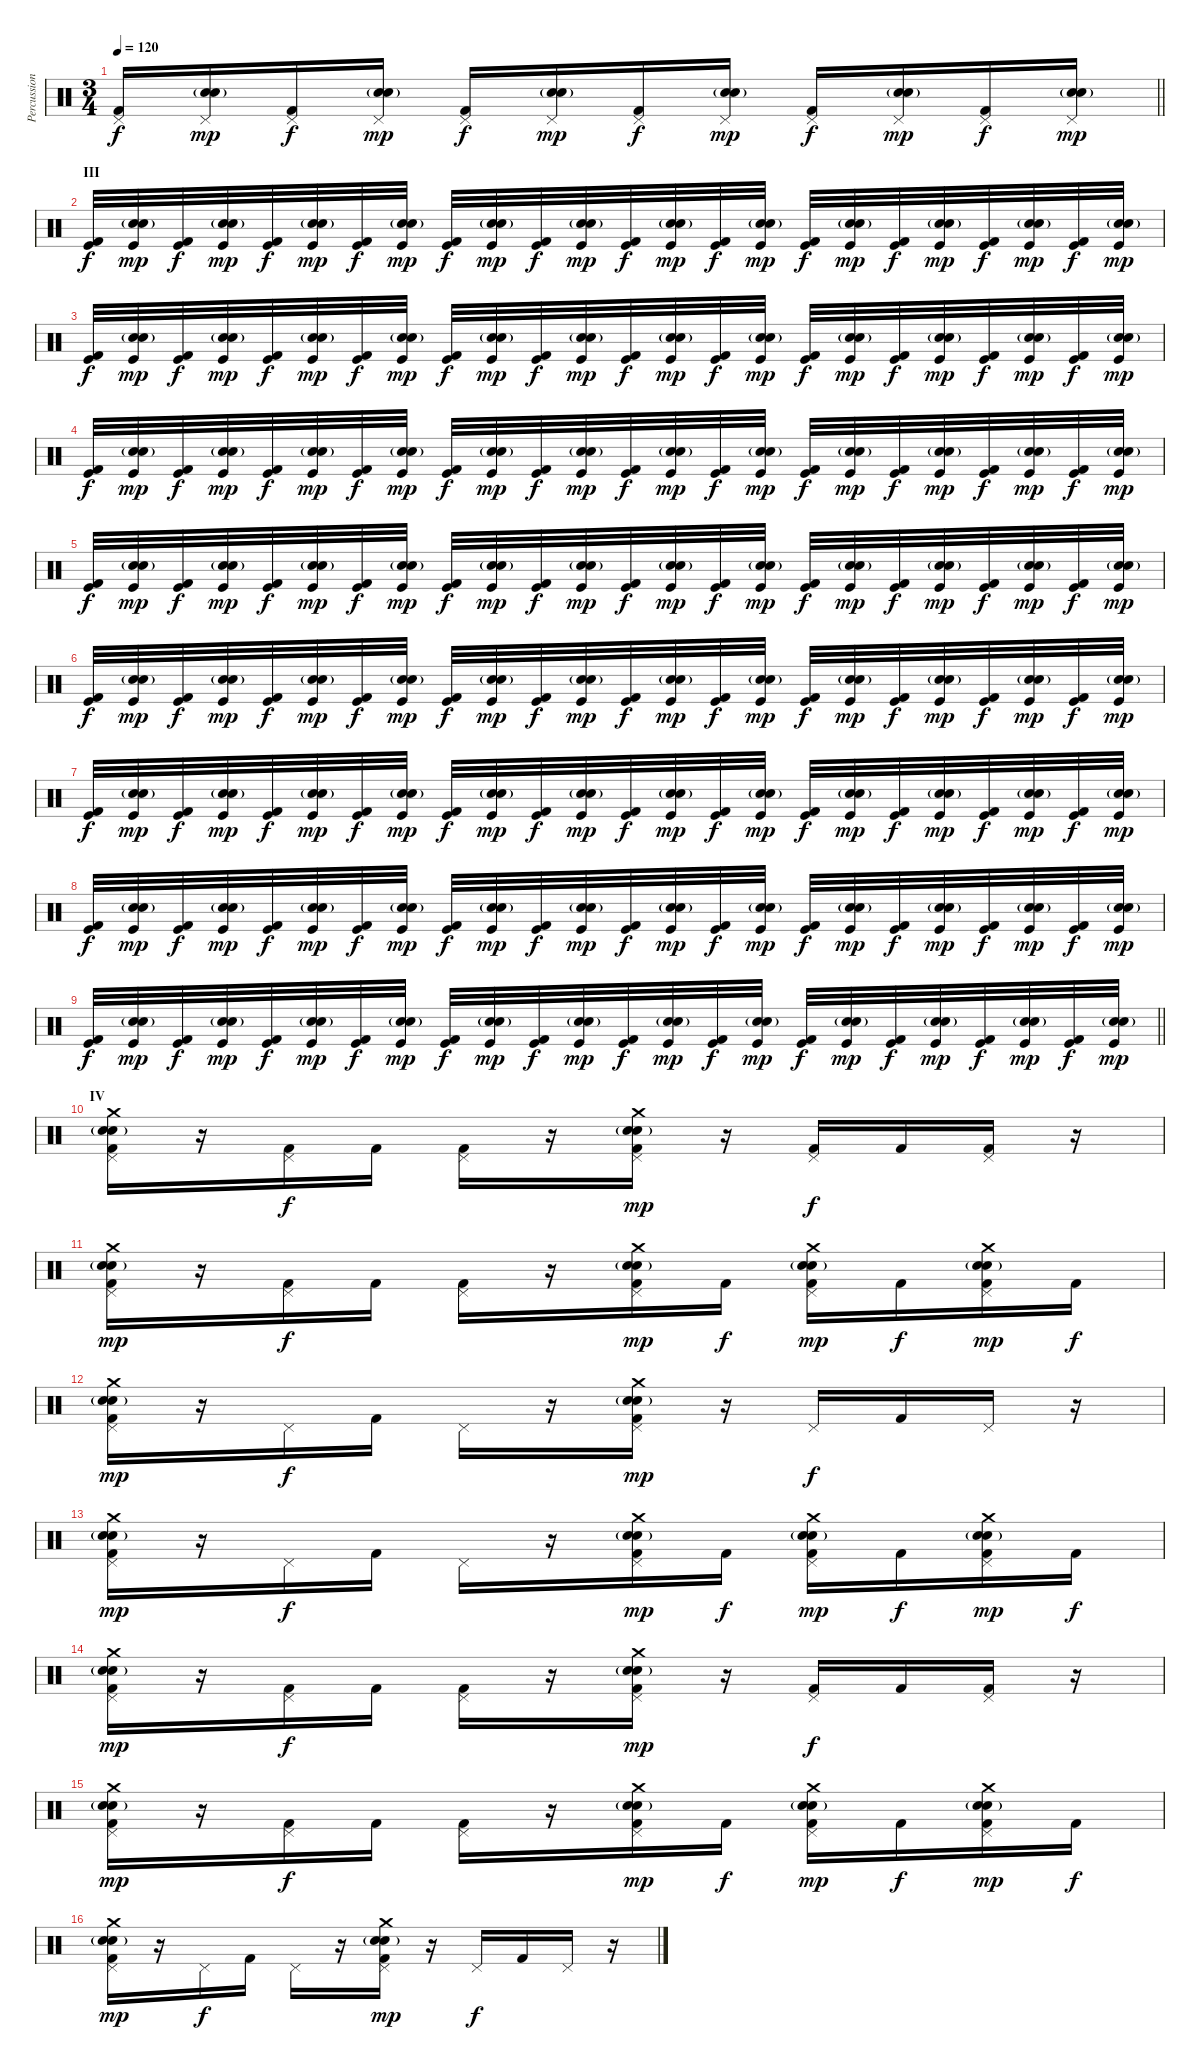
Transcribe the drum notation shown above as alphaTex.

\track ("Percussion" "Percussion") {instrument percussion}
\staff {score}
\articulation defaults
\ts (3 4)
\tempo 120
\clef neutral
\barLineRight lightlight
\ks c
("Kick (hit) 2" "Pedal Hi-Hat (hit)").16{dy f} ("Electric Snare (hit)" "Snare (hit) 2"{g} "Pedal Hi-Hat (hit)").16{dy mp} ("Kick (hit) 2" "Pedal Hi-Hat (hit)").16{dy f} ("Electric Snare (hit)" "Snare (hit) 2"{g} "Pedal Hi-Hat (hit)").16{dy mp} ("Kick (hit) 2" "Pedal Hi-Hat (hit)").16{dy f} ("Electric Snare (hit)" "Snare (hit) 2"{g} "Pedal Hi-Hat (hit)").16{dy mp} ("Kick (hit) 2" "Pedal Hi-Hat (hit)").16{dy f} ("Electric Snare (hit)" "Snare (hit) 2"{g} "Pedal Hi-Hat (hit)").16{dy mp} ("Kick (hit) 2" "Pedal Hi-Hat (hit)").16{dy f} ("Electric Snare (hit)" "Snare (hit) 2"{g} "Pedal Hi-Hat (hit)").16{dy mp} ("Kick (hit) 2" "Pedal Hi-Hat (hit)").16{dy f} ("Electric Snare (hit)" "Snare (hit) 2"{g} "Pedal Hi-Hat (hit)").16{dy mp} |
\section ("" "III")
("Kick (hit) 2" "Kick (hit)").32{dy f} ("Electric Snare (hit)" "Snare (hit) 2"{g} "Kick (hit)").32{dy mp} ("Kick (hit) 2" "Kick (hit)").32{dy f} ("Electric Snare (hit)" "Snare (hit) 2"{g} "Kick (hit)").32{dy mp} ("Kick (hit) 2" "Kick (hit)").32{dy f} ("Electric Snare (hit)" "Snare (hit) 2"{g} "Kick (hit)").32{dy mp} ("Kick (hit) 2" "Kick (hit)").32{dy f} ("Electric Snare (hit)" "Snare (hit) 2"{g} "Kick (hit)").32{dy mp} ("Kick (hit) 2" "Kick (hit)").32{dy f} ("Electric Snare (hit)" "Snare (hit) 2"{g} "Kick (hit)").32{dy mp} ("Kick (hit) 2" "Kick (hit)").32{dy f} ("Electric Snare (hit)" "Snare (hit) 2"{g} "Kick (hit)").32{dy mp} ("Kick (hit) 2" "Kick (hit)").32{dy f} ("Electric Snare (hit)" "Snare (hit) 2"{g} "Kick (hit)").32{dy mp} ("Kick (hit) 2" "Kick (hit)").32{dy f} ("Electric Snare (hit)" "Snare (hit) 2"{g} "Kick (hit)").32{dy mp} ("Kick (hit) 2" "Kick (hit)").32{dy f} ("Electric Snare (hit)" "Snare (hit) 2"{g} "Kick (hit)").32{dy mp} ("Kick (hit) 2" "Kick (hit)").32{dy f} ("Electric Snare (hit)" "Snare (hit) 2"{g} "Kick (hit)").32{dy mp} ("Kick (hit) 2" "Kick (hit)").32{dy f} ("Electric Snare (hit)" "Snare (hit) 2"{g} "Kick (hit)").32{dy mp} ("Kick (hit) 2" "Kick (hit)").32{dy f} ("Electric Snare (hit)" "Snare (hit) 2"{g} "Kick (hit)").32{dy mp} |
("Kick (hit) 2" "Kick (hit)").32{dy f} ("Electric Snare (hit)" "Snare (hit) 2"{g} "Kick (hit)").32{dy mp} ("Kick (hit) 2" "Kick (hit)").32{dy f} ("Electric Snare (hit)" "Snare (hit) 2"{g} "Kick (hit)").32{dy mp} ("Kick (hit) 2" "Kick (hit)").32{dy f} ("Electric Snare (hit)" "Snare (hit) 2"{g} "Kick (hit)").32{dy mp} ("Kick (hit) 2" "Kick (hit)").32{dy f} ("Electric Snare (hit)" "Snare (hit) 2"{g} "Kick (hit)").32{dy mp} ("Kick (hit) 2" "Kick (hit)").32{dy f} ("Electric Snare (hit)" "Snare (hit) 2"{g} "Kick (hit)").32{dy mp} ("Kick (hit) 2" "Kick (hit)").32{dy f} ("Electric Snare (hit)" "Snare (hit) 2"{g} "Kick (hit)").32{dy mp} ("Kick (hit) 2" "Kick (hit)").32{dy f} ("Electric Snare (hit)" "Snare (hit) 2"{g} "Kick (hit)").32{dy mp} ("Kick (hit) 2" "Kick (hit)").32{dy f} ("Electric Snare (hit)" "Snare (hit) 2"{g} "Kick (hit)").32{dy mp} ("Kick (hit) 2" "Kick (hit)").32{dy f} ("Electric Snare (hit)" "Snare (hit) 2"{g} "Kick (hit)").32{dy mp} ("Kick (hit) 2" "Kick (hit)").32{dy f} ("Electric Snare (hit)" "Snare (hit) 2"{g} "Kick (hit)").32{dy mp} ("Kick (hit) 2" "Kick (hit)").32{dy f} ("Electric Snare (hit)" "Snare (hit) 2"{g} "Kick (hit)").32{dy mp} ("Kick (hit) 2" "Kick (hit)").32{dy f} ("Electric Snare (hit)" "Snare (hit) 2"{g} "Kick (hit)").32{dy mp} |
("Kick (hit) 2" "Kick (hit)").32{dy f} ("Electric Snare (hit)" "Snare (hit) 2"{g} "Kick (hit)").32{dy mp} ("Kick (hit) 2" "Kick (hit)").32{dy f} ("Electric Snare (hit)" "Snare (hit) 2"{g} "Kick (hit)").32{dy mp} ("Kick (hit) 2" "Kick (hit)").32{dy f} ("Electric Snare (hit)" "Snare (hit) 2"{g} "Kick (hit)").32{dy mp} ("Kick (hit) 2" "Kick (hit)").32{dy f} ("Electric Snare (hit)" "Snare (hit) 2"{g} "Kick (hit)").32{dy mp} ("Kick (hit) 2" "Kick (hit)").32{dy f} ("Electric Snare (hit)" "Snare (hit) 2"{g} "Kick (hit)").32{dy mp} ("Kick (hit) 2" "Kick (hit)").32{dy f} ("Electric Snare (hit)" "Snare (hit) 2"{g} "Kick (hit)").32{dy mp} ("Kick (hit) 2" "Kick (hit)").32{dy f} ("Electric Snare (hit)" "Snare (hit) 2"{g} "Kick (hit)").32{dy mp} ("Kick (hit) 2" "Kick (hit)").32{dy f} ("Electric Snare (hit)" "Snare (hit) 2"{g} "Kick (hit)").32{dy mp} ("Kick (hit) 2" "Kick (hit)").32{dy f} ("Electric Snare (hit)" "Snare (hit) 2"{g} "Kick (hit)").32{dy mp} ("Kick (hit) 2" "Kick (hit)").32{dy f} ("Electric Snare (hit)" "Snare (hit) 2"{g} "Kick (hit)").32{dy mp} ("Kick (hit) 2" "Kick (hit)").32{dy f} ("Electric Snare (hit)" "Snare (hit) 2"{g} "Kick (hit)").32{dy mp} ("Kick (hit) 2" "Kick (hit)").32{dy f} ("Electric Snare (hit)" "Snare (hit) 2"{g} "Kick (hit)").32{dy mp} |
("Kick (hit) 2" "Kick (hit)").32{dy f} ("Electric Snare (hit)" "Snare (hit) 2"{g} "Kick (hit)").32{dy mp} ("Kick (hit) 2" "Kick (hit)").32{dy f} ("Electric Snare (hit)" "Snare (hit) 2"{g} "Kick (hit)").32{dy mp} ("Kick (hit) 2" "Kick (hit)").32{dy f} ("Electric Snare (hit)" "Snare (hit) 2"{g} "Kick (hit)").32{dy mp} ("Kick (hit) 2" "Kick (hit)").32{dy f} ("Electric Snare (hit)" "Snare (hit) 2"{g} "Kick (hit)").32{dy mp} ("Kick (hit) 2" "Kick (hit)").32{dy f} ("Electric Snare (hit)" "Snare (hit) 2"{g} "Kick (hit)").32{dy mp} ("Kick (hit) 2" "Kick (hit)").32{dy f} ("Electric Snare (hit)" "Snare (hit) 2"{g} "Kick (hit)").32{dy mp} ("Kick (hit) 2" "Kick (hit)").32{dy f} ("Electric Snare (hit)" "Snare (hit) 2"{g} "Kick (hit)").32{dy mp} ("Kick (hit) 2" "Kick (hit)").32{dy f} ("Electric Snare (hit)" "Snare (hit) 2"{g} "Kick (hit)").32{dy mp} ("Kick (hit) 2" "Kick (hit)").32{dy f} ("Electric Snare (hit)" "Snare (hit) 2"{g} "Kick (hit)").32{dy mp} ("Kick (hit) 2" "Kick (hit)").32{dy f} ("Electric Snare (hit)" "Snare (hit) 2"{g} "Kick (hit)").32{dy mp} ("Kick (hit) 2" "Kick (hit)").32{dy f} ("Electric Snare (hit)" "Snare (hit) 2"{g} "Kick (hit)").32{dy mp} ("Kick (hit) 2" "Kick (hit)").32{dy f} ("Electric Snare (hit)" "Snare (hit) 2"{g} "Kick (hit)").32{dy mp} |
("Kick (hit) 2" "Kick (hit)").32{dy f} ("Electric Snare (hit)" "Snare (hit) 2"{g} "Kick (hit)").32{dy mp} ("Kick (hit) 2" "Kick (hit)").32{dy f} ("Electric Snare (hit)" "Snare (hit) 2"{g} "Kick (hit)").32{dy mp} ("Kick (hit) 2" "Kick (hit)").32{dy f} ("Electric Snare (hit)" "Snare (hit) 2"{g} "Kick (hit)").32{dy mp} ("Kick (hit) 2" "Kick (hit)").32{dy f} ("Electric Snare (hit)" "Snare (hit) 2"{g} "Kick (hit)").32{dy mp} ("Kick (hit) 2" "Kick (hit)").32{dy f} ("Electric Snare (hit)" "Snare (hit) 2"{g} "Kick (hit)").32{dy mp} ("Kick (hit) 2" "Kick (hit)").32{dy f} ("Electric Snare (hit)" "Snare (hit) 2"{g} "Kick (hit)").32{dy mp} ("Kick (hit) 2" "Kick (hit)").32{dy f} ("Electric Snare (hit)" "Snare (hit) 2"{g} "Kick (hit)").32{dy mp} ("Kick (hit) 2" "Kick (hit)").32{dy f} ("Electric Snare (hit)" "Snare (hit) 2"{g} "Kick (hit)").32{dy mp} ("Kick (hit) 2" "Kick (hit)").32{dy f} ("Electric Snare (hit)" "Snare (hit) 2"{g} "Kick (hit)").32{dy mp} ("Kick (hit) 2" "Kick (hit)").32{dy f} ("Electric Snare (hit)" "Snare (hit) 2"{g} "Kick (hit)").32{dy mp} ("Kick (hit) 2" "Kick (hit)").32{dy f} ("Electric Snare (hit)" "Snare (hit) 2"{g} "Kick (hit)").32{dy mp} ("Kick (hit) 2" "Kick (hit)").32{dy f} ("Electric Snare (hit)" "Snare (hit) 2"{g} "Kick (hit)").32{dy mp} |
("Kick (hit) 2" "Kick (hit)").32{dy f} ("Electric Snare (hit)" "Snare (hit) 2"{g} "Kick (hit)").32{dy mp} ("Kick (hit) 2" "Kick (hit)").32{dy f} ("Electric Snare (hit)" "Snare (hit) 2"{g} "Kick (hit)").32{dy mp} ("Kick (hit) 2" "Kick (hit)").32{dy f} ("Electric Snare (hit)" "Snare (hit) 2"{g} "Kick (hit)").32{dy mp} ("Kick (hit) 2" "Kick (hit)").32{dy f} ("Electric Snare (hit)" "Snare (hit) 2"{g} "Kick (hit)").32{dy mp} ("Kick (hit) 2" "Kick (hit)").32{dy f} ("Electric Snare (hit)" "Snare (hit) 2"{g} "Kick (hit)").32{dy mp} ("Kick (hit) 2" "Kick (hit)").32{dy f} ("Electric Snare (hit)" "Snare (hit) 2"{g} "Kick (hit)").32{dy mp} ("Kick (hit) 2" "Kick (hit)").32{dy f} ("Electric Snare (hit)" "Snare (hit) 2"{g} "Kick (hit)").32{dy mp} ("Kick (hit) 2" "Kick (hit)").32{dy f} ("Electric Snare (hit)" "Snare (hit) 2"{g} "Kick (hit)").32{dy mp} ("Kick (hit) 2" "Kick (hit)").32{dy f} ("Electric Snare (hit)" "Snare (hit) 2"{g} "Kick (hit)").32{dy mp} ("Kick (hit) 2" "Kick (hit)").32{dy f} ("Electric Snare (hit)" "Snare (hit) 2"{g} "Kick (hit)").32{dy mp} ("Kick (hit) 2" "Kick (hit)").32{dy f} ("Electric Snare (hit)" "Snare (hit) 2"{g} "Kick (hit)").32{dy mp} ("Kick (hit) 2" "Kick (hit)").32{dy f} ("Electric Snare (hit)" "Snare (hit) 2"{g} "Kick (hit)").32{dy mp} |
("Kick (hit) 2" "Kick (hit)").32{dy f} ("Electric Snare (hit)" "Snare (hit) 2"{g} "Kick (hit)").32{dy mp} ("Kick (hit) 2" "Kick (hit)").32{dy f} ("Electric Snare (hit)" "Snare (hit) 2"{g} "Kick (hit)").32{dy mp} ("Kick (hit) 2" "Kick (hit)").32{dy f} ("Electric Snare (hit)" "Snare (hit) 2"{g} "Kick (hit)").32{dy mp} ("Kick (hit) 2" "Kick (hit)").32{dy f} ("Electric Snare (hit)" "Snare (hit) 2"{g} "Kick (hit)").32{dy mp} ("Kick (hit) 2" "Kick (hit)").32{dy f} ("Electric Snare (hit)" "Snare (hit) 2"{g} "Kick (hit)").32{dy mp} ("Kick (hit) 2" "Kick (hit)").32{dy f} ("Electric Snare (hit)" "Snare (hit) 2"{g} "Kick (hit)").32{dy mp} ("Kick (hit) 2" "Kick (hit)").32{dy f} ("Electric Snare (hit)" "Snare (hit) 2"{g} "Kick (hit)").32{dy mp} ("Kick (hit) 2" "Kick (hit)").32{dy f} ("Electric Snare (hit)" "Snare (hit) 2"{g} "Kick (hit)").32{dy mp} ("Kick (hit) 2" "Kick (hit)").32{dy f} ("Electric Snare (hit)" "Snare (hit) 2"{g} "Kick (hit)").32{dy mp} ("Kick (hit) 2" "Kick (hit)").32{dy f} ("Electric Snare (hit)" "Snare (hit) 2"{g} "Kick (hit)").32{dy mp} ("Kick (hit) 2" "Kick (hit)").32{dy f} ("Electric Snare (hit)" "Snare (hit) 2"{g} "Kick (hit)").32{dy mp} ("Kick (hit) 2" "Kick (hit)").32{dy f} ("Electric Snare (hit)" "Snare (hit) 2"{g} "Kick (hit)").32{dy mp} |
\barLineRight lightlight
("Kick (hit) 2" "Kick (hit)").32{dy f} ("Electric Snare (hit)" "Snare (hit) 2"{g} "Kick (hit)").32{dy mp} ("Kick (hit) 2" "Kick (hit)").32{dy f} ("Electric Snare (hit)" "Snare (hit) 2"{g} "Kick (hit)").32{dy mp} ("Kick (hit) 2" "Kick (hit)").32{dy f} ("Electric Snare (hit)" "Snare (hit) 2"{g} "Kick (hit)").32{dy mp} ("Kick (hit) 2" "Kick (hit)").32{dy f} ("Electric Snare (hit)" "Snare (hit) 2"{g} "Kick (hit)").32{dy mp} ("Kick (hit) 2" "Kick (hit)").32{dy f} ("Electric Snare (hit)" "Snare (hit) 2"{g} "Kick (hit)").32{dy mp} ("Kick (hit) 2" "Kick (hit)").32{dy f} ("Electric Snare (hit)" "Snare (hit) 2"{g} "Kick (hit)").32{dy mp} ("Kick (hit) 2" "Kick (hit)").32{dy f} ("Electric Snare (hit)" "Snare (hit) 2"{g} "Kick (hit)").32{dy mp} ("Kick (hit) 2" "Kick (hit)").32{dy f} ("Electric Snare (hit)" "Snare (hit) 2"{g} "Kick (hit)").32{dy mp} ("Kick (hit) 2" "Kick (hit)").32{dy f} ("Electric Snare (hit)" "Snare (hit) 2"{g} "Kick (hit)").32{dy mp} ("Kick (hit) 2" "Kick (hit)").32{dy f} ("Electric Snare (hit)" "Snare (hit) 2"{g} "Kick (hit)").32{dy mp} ("Kick (hit) 2" "Kick (hit)").32{dy f} ("Electric Snare (hit)" "Snare (hit) 2"{g} "Kick (hit)").32{dy mp} ("Kick (hit) 2" "Kick (hit)").32{dy f} ("Electric Snare (hit)" "Snare (hit) 2"{g} "Kick (hit)").32{dy mp} |
\section ("" "IV")
("Crash medium (hit)" "Electric Snare (hit)" "Snare (hit) 2"{g} "Kick (hit) 2" "Pedal Hi-Hat (hit)").16 r.16 ("Kick (hit) 2" "Pedal Hi-Hat (hit)").16{dy f} "Kick (hit) 2".16 ("Kick (hit) 2" "Pedal Hi-Hat (hit)").16 r.16 ("Crash medium (hit)" "Electric Snare (hit)" "Snare (hit) 2"{g} "Kick (hit) 2" "Pedal Hi-Hat (hit)").16{dy mp} r.16 ("Kick (hit) 2" "Pedal Hi-Hat (hit)").16{dy f} "Kick (hit) 2".16 ("Kick (hit) 2" "Pedal Hi-Hat (hit)").16 r.16 |
("Crash medium (hit)" "Electric Snare (hit)" "Snare (hit) 2"{g} "Kick (hit) 2" "Pedal Hi-Hat (hit)").16{dy mp} r.16 ("Kick (hit) 2" "Pedal Hi-Hat (hit)").16{dy f} "Kick (hit) 2".16 ("Kick (hit) 2" "Pedal Hi-Hat (hit)").16 r.16 ("Crash medium (hit)" "Electric Snare (hit)" "Snare (hit) 2"{g} "Kick (hit) 2" "Pedal Hi-Hat (hit)").16{dy mp} "Kick (hit) 2".16{dy f} ("Crash medium (hit)" "Electric Snare (hit)" "Snare (hit) 2"{g} "Kick (hit) 2" "Pedal Hi-Hat (hit)").16{dy mp} "Kick (hit) 2".16{dy f} ("Crash medium (hit)" "Electric Snare (hit)" "Snare (hit) 2"{g} "Kick (hit) 2" "Pedal Hi-Hat (hit)").16{dy mp} "Kick (hit) 2".16{dy f} |
("Crash medium (hit)" "Electric Snare (hit)" "Snare (hit) 2"{g} "Kick (hit) 2" "Pedal Hi-Hat (hit)").16{dy mp} r.16 "Pedal Hi-Hat (hit)".16{dy f} "Kick (hit) 2".16 "Pedal Hi-Hat (hit)".16 r.16 ("Crash medium (hit)" "Electric Snare (hit)" "Snare (hit) 2"{g} "Kick (hit) 2" "Pedal Hi-Hat (hit)").16{dy mp} r.16 "Pedal Hi-Hat (hit)".16{dy f} "Kick (hit) 2".16 "Pedal Hi-Hat (hit)".16 r.16 |
("Crash medium (hit)" "Electric Snare (hit)" "Snare (hit) 2"{g} "Kick (hit) 2" "Pedal Hi-Hat (hit)").16{dy mp} r.16 "Pedal Hi-Hat (hit)".16{dy f} "Kick (hit) 2".16 "Pedal Hi-Hat (hit)".16 r.16 ("Crash medium (hit)" "Electric Snare (hit)" "Snare (hit) 2"{g} "Kick (hit) 2" "Pedal Hi-Hat (hit)").16{dy mp} "Kick (hit) 2".16{dy f} ("Crash medium (hit)" "Electric Snare (hit)" "Snare (hit) 2"{g} "Kick (hit) 2" "Pedal Hi-Hat (hit)").16{dy mp} "Kick (hit) 2".16{dy f} ("Crash medium (hit)" "Electric Snare (hit)" "Snare (hit) 2"{g} "Kick (hit) 2" "Pedal Hi-Hat (hit)").16{dy mp} "Kick (hit) 2".16{dy f} |
("Crash medium (hit)" "Electric Snare (hit)" "Snare (hit) 2"{g} "Kick (hit) 2" "Pedal Hi-Hat (hit)").16{dy mp} r.16 ("Kick (hit) 2" "Pedal Hi-Hat (hit)").16{dy f} "Kick (hit) 2".16 ("Kick (hit) 2" "Pedal Hi-Hat (hit)").16 r.16 ("Crash medium (hit)" "Electric Snare (hit)" "Snare (hit) 2"{g} "Kick (hit) 2" "Pedal Hi-Hat (hit)").16{dy mp} r.16 ("Kick (hit) 2" "Pedal Hi-Hat (hit)").16{dy f} "Kick (hit) 2".16 ("Kick (hit) 2" "Pedal Hi-Hat (hit)").16 r.16 |
("Crash medium (hit)" "Electric Snare (hit)" "Snare (hit) 2"{g} "Kick (hit) 2" "Pedal Hi-Hat (hit)").16{dy mp} r.16 ("Kick (hit) 2" "Pedal Hi-Hat (hit)").16{dy f} "Kick (hit) 2".16 ("Kick (hit) 2" "Pedal Hi-Hat (hit)").16 r.16 ("Crash medium (hit)" "Electric Snare (hit)" "Snare (hit) 2"{g} "Kick (hit) 2" "Pedal Hi-Hat (hit)").16{dy mp} "Kick (hit) 2".16{dy f} ("Crash medium (hit)" "Electric Snare (hit)" "Snare (hit) 2"{g} "Kick (hit) 2" "Pedal Hi-Hat (hit)").16{dy mp} "Kick (hit) 2".16{dy f} ("Crash medium (hit)" "Electric Snare (hit)" "Snare (hit) 2"{g} "Kick (hit) 2" "Pedal Hi-Hat (hit)").16{dy mp} "Kick (hit) 2".16{dy f} |
("Crash medium (hit)" "Electric Snare (hit)" "Snare (hit) 2"{g} "Kick (hit) 2" "Pedal Hi-Hat (hit)").16{dy mp} r.16 "Pedal Hi-Hat (hit)".16{dy f} "Kick (hit) 2".16 "Pedal Hi-Hat (hit)".16 r.16 ("Crash medium (hit)" "Electric Snare (hit)" "Snare (hit) 2"{g} "Kick (hit) 2" "Pedal Hi-Hat (hit)").16{dy mp} r.16 "Pedal Hi-Hat (hit)".16{dy f} "Kick (hit) 2".16 "Pedal Hi-Hat (hit)".16 r.16
